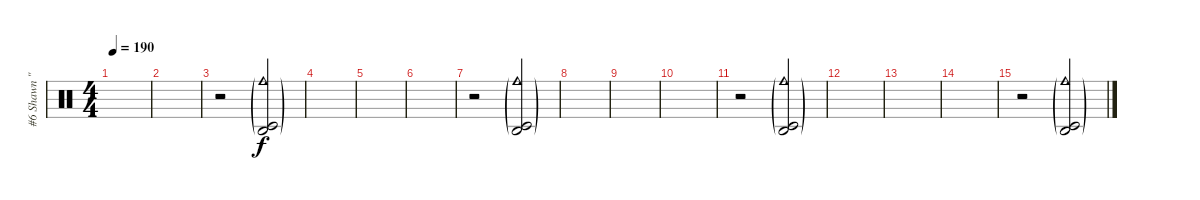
\track ("#6 Shawn \"Clown\" Crahan" "#6 Shawn \"") {instrument percussion}
\staff {score}
\articulation defaults
\ts (4 4)
\tempo 190
\clef neutral
\ks c
|
|
r.2 ("Cowbell medium (hit)"{g} "Timbale low (hit)"{g} "Agogo high (hit)"{g}).2 |
|
|
|
r.2 ("Cowbell medium (hit)"{g} "Timbale low (hit)"{g} "Agogo high (hit)"{g}).2 |
|
|
|
r.2 ("Cowbell medium (hit)"{g} "Timbale low (hit)"{g} "Agogo high (hit)"{g}).2 |
|
|
|
r.2 ("Cowbell medium (hit)"{g} "Timbale low (hit)"{g} "Agogo high (hit)"{g}).2
